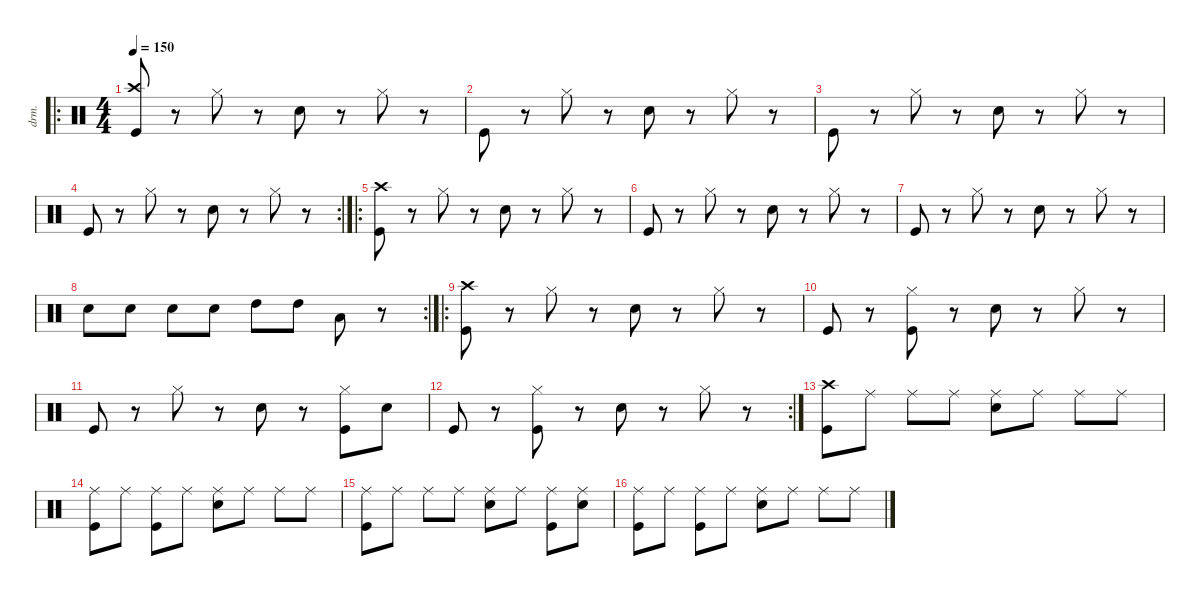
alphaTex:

\defaultSystemsLayout 4
\hideDynamics
\bracketExtendMode nobrackets
\track ("Drumkit" "drm.") {instrument percussion}
\staff {score}
\articulation defaults
\ro
\ts (4 4)
\tempo 150
\clef neutral
\ks c
("Kick (hit)" "Crash high (hit)").8{dy mf beam Up} r.8{beam Down} "Hi-Hat (closed)".8{beam Down} r.8{beam Down} "Snare (hit) 2".8{beam Down} r.8{beam Down} "Hi-Hat (closed)".8{beam Down} r.8{beam Down} |
"Kick (hit)".8{beam Down} r.8{beam Down} "Hi-Hat (closed)".8{beam Down} r.8{beam Down} "Snare (hit) 2".8{beam Down} r.8{beam Down} "Hi-Hat (closed)".8{beam Down} r.8{beam Down} |
"Kick (hit)".8{beam Down} r.8{beam Down} "Hi-Hat (closed)".8{beam Down} r.8{beam Down} "Snare (hit) 2".8{beam Down} r.8{beam Down} "Hi-Hat (closed)".8{beam Down} r.8{beam Down} |
\rc 2 "Kick (hit)".8{beam Up}
r.8{beam Down} "Hi-Hat (closed)".8{beam Down} r.8{beam Down} "Snare (hit) 2".8{beam Down} r.8{beam Down} "Hi-Hat (closed)".8{beam Down} r.8{beam Down} |
\ro
("Kick (hit)" "Crash high (hit)").8{beam Down} r.8{beam Down} "Hi-Hat (closed)".8{beam Down} r.8{beam Down} "Snare (hit) 2".8{beam Down} r.8{beam Down} "Hi-Hat (closed)".8{beam Down} r.8{beam Down} |
"Kick (hit)".8{beam Up} r.8{beam Down} "Hi-Hat (closed)".8{beam Down} r.8{beam Down} "Snare (hit) 2".8{beam Down} r.8{beam Down} "Hi-Hat (closed)".8{beam Down} r.8{beam Down} |
"Kick (hit)".8{beam Up} r.8{beam Down} "Hi-Hat (closed)".8{beam Down} r.8{beam Down} "Snare (hit) 2".8{beam Down} r.8{beam Down} "Hi-Hat (closed)".8{beam Down} r.8{beam Down} |
\rc 2 "Snare (hit) 2".8{beam Down} "Snare (hit) 2".8{beam Down} "Snare (hit) 2".8{beam Down} "Snare (hit) 2".8{beam Down} "High Tom (hit)".8{beam Down} "High Tom (hit)".8{beam Down} "Low Tom (hit)".8{beam Down}
r.8{beam Down} |
\ro
("Kick (hit)" "Crash high (hit)").8{beam Down} r.8{beam Down} "Hi-Hat (closed)".8{beam Down} r.8{beam Down} "Snare (hit) 2".8{beam Down} r.8{beam Down} "Hi-Hat (closed)".8{beam Down} r.8{beam Down} |
"Kick (hit)".8{beam Up} r.8{beam Down} ("Hi-Hat (closed)" "Kick (hit)").8{beam Down} r.8{beam Down} "Snare (hit) 2".8{beam Down} r.8{beam Down} "Hi-Hat (closed)".8{beam Down} r.8{beam Down} |
"Kick (hit)".8{beam Up} r.8{beam Down} "Hi-Hat (closed)".8{beam Down} r.8{beam Down} "Snare (hit) 2".8{beam Down} r.8{beam Down} ("Hi-Hat (closed)" "Kick (hit)").8{beam Down} "Snare (hit) 2".8{beam Down} |
\rc 2 "Kick (hit)".8{beam Up}
r.8{beam Down} ("Hi-Hat (closed)" "Kick (hit)").8{beam Down} r.8{beam Down} "Snare (hit) 2".8{beam Down} r.8{beam Down} "Hi-Hat (closed)".8{beam Down} r.8{beam Down} |
("Kick (hit)" "Crash high (hit)").8{beam Down} "Ride (middle)".8{beam Down} "Ride (middle)".8{beam Down} "Ride (middle)".8{beam Down} ("Snare (hit) 2" "Ride (middle)").8{beam Down} "Ride (middle)".8{beam Down} "Ride (middle)".8{beam Down} "Ride (middle)".8{beam Down} |
("Kick (hit)" "Ride (middle)").8{beam Down} "Ride (middle)".8{beam Down} ("Kick (hit)" "Ride (middle)").8{beam Down} "Ride (middle)".8{beam Down} ("Snare (hit) 2" "Ride (middle)").8{beam Down} "Ride (middle)".8{beam Down} "Ride (middle)".8{beam Down} "Ride (middle)".8{beam Down} |
("Kick (hit)" "Ride (middle)").8{beam Down} "Ride (middle)".8{beam Down} "Ride (middle)".8{beam Down} "Ride (middle)".8{beam Down} ("Snare (hit) 2" "Ride (middle)").8{beam Down} "Ride (middle)".8{beam Down} ("Kick (hit)" "Ride (middle)").8{beam Down} ("Snare (hit) 2" "Ride (middle)").8{beam Down} |
("Kick (hit)" "Ride (middle)").8{beam Down} "Ride (middle)".8{beam Down} ("Kick (hit)" "Ride (middle)").8{beam Down} "Ride (middle)".8{beam Down} ("Snare (hit) 2" "Ride (middle)").8{beam Down} "Ride (middle)".8{beam Down} "Ride (middle)".8{beam Down} "Ride (middle)".8{beam Down}
